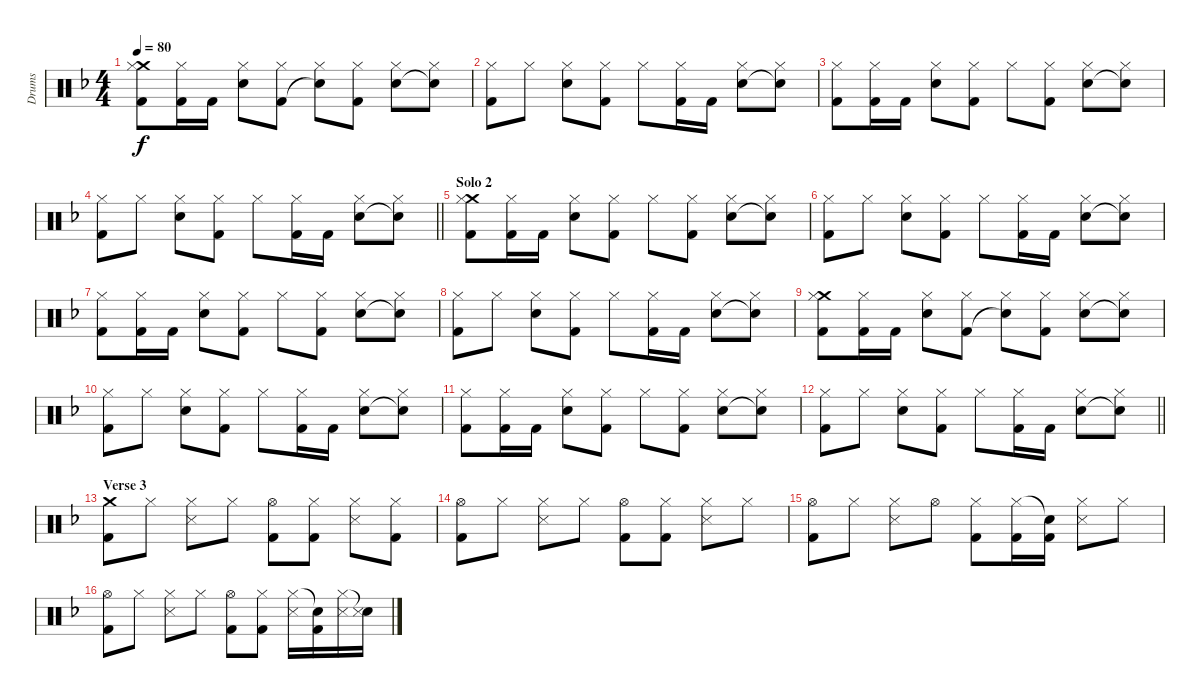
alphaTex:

\track ("Drums" "Drums") {instrument percussion}
\staff {score}
\articulation defaults
\ts (4 4)
\tempo 80
\clef neutral
\ks f
("Crash medium (hit)" "Hi-Hat (closed)" "Kick (hit) 2").8{dy f} ("Hi-Hat (closed)" "Kick (hit) 2").16 "Kick (hit) 2".16 ("Hi-Hat (closed)" "Snare (hit) 2").8 ("Hi-Hat (closed)" "Kick (hit) 2").8 ("Hi-Hat (closed)" "Snare (hit) 2"{t}).8 ("Hi-Hat (closed)" "Kick (hit) 2").8 ("Hi-Hat (closed)" "Snare (hit) 2").8 ("Hi-Hat (closed)" "Snare (hit) 2"{t}).8 |
("Hi-Hat (closed)" "Kick (hit) 2").8 "Hi-Hat (closed)".8 ("Hi-Hat (closed)" "Snare (hit) 2").8 ("Hi-Hat (closed)" "Kick (hit) 2").8 "Hi-Hat (closed)".8 ("Hi-Hat (closed)" "Kick (hit) 2").16 "Kick (hit) 2".16 ("Hi-Hat (closed)" "Snare (hit) 2").8 ("Hi-Hat (closed)" "Snare (hit)"{t}).8 |
("Hi-Hat (closed)" "Kick (hit) 2").8 ("Hi-Hat (closed)" "Kick (hit) 2").16 "Kick (hit) 2".16 ("Hi-Hat (closed)" "Snare (hit) 2").8 ("Hi-Hat (closed)" "Kick (hit) 2").8 "Hi-Hat (closed)".8 ("Hi-Hat (closed)" "Kick (hit) 2").8 ("Hi-Hat (closed)" "Snare (hit) 2").8 ("Hi-Hat (closed)" "Snare (hit) 2"{t}).8 |
\barLineRight lightlight
("Hi-Hat (closed)" "Kick (hit) 2").8 "Hi-Hat (closed)".8 ("Hi-Hat (closed)" "Snare (hit) 2").8 ("Hi-Hat (closed)" "Kick (hit) 2").8 "Hi-Hat (closed)".8 ("Hi-Hat (closed)" "Kick (hit) 2").16 "Kick (hit) 2".16 ("Hi-Hat (closed)" "Snare (hit) 2").8 ("Hi-Hat (closed)" "Snare (hit)"{t}).8 |
\section ("" "Solo 2")
("Crash medium (hit)" "Hi-Hat (closed)" "Kick (hit) 2").8 ("Hi-Hat (closed)" "Kick (hit) 2").16 "Kick (hit) 2".16 ("Hi-Hat (closed)" "Snare (hit) 2").8 ("Hi-Hat (closed)" "Kick (hit) 2").8 "Hi-Hat (closed)".8 ("Hi-Hat (closed)" "Kick (hit) 2").8 ("Hi-Hat (closed)" "Snare (hit) 2").8 ("Hi-Hat (closed)" "Snare (hit) 2"{t}).8 |
("Hi-Hat (closed)" "Kick (hit) 2").8 "Hi-Hat (closed)".8 ("Hi-Hat (closed)" "Snare (hit) 2").8 ("Hi-Hat (closed)" "Kick (hit) 2").8 "Hi-Hat (closed)".8 ("Hi-Hat (closed)" "Kick (hit) 2").16 "Kick (hit) 2".16 ("Hi-Hat (closed)" "Snare (hit) 2").8 ("Hi-Hat (closed)" "Snare (hit)"{t}).8 |
("Hi-Hat (closed)" "Kick (hit) 2").8 ("Hi-Hat (closed)" "Kick (hit) 2").16 "Kick (hit) 2".16 ("Hi-Hat (closed)" "Snare (hit) 2").8 ("Hi-Hat (closed)" "Kick (hit) 2").8 "Hi-Hat (closed)".8 ("Hi-Hat (closed)" "Kick (hit) 2").8 ("Hi-Hat (closed)" "Snare (hit) 2").8 ("Hi-Hat (closed)" "Snare (hit) 2"{t}).8 |
("Hi-Hat (closed)" "Kick (hit) 2").8 "Hi-Hat (closed)".8 ("Hi-Hat (closed)" "Snare (hit) 2").8 ("Hi-Hat (closed)" "Kick (hit) 2").8 "Hi-Hat (closed)".8 ("Hi-Hat (closed)" "Kick (hit) 2").16 "Kick (hit) 2".16 ("Hi-Hat (closed)" "Snare (hit) 2").8 ("Hi-Hat (closed)" "Snare (hit)"{t}).8 |
("Crash medium (hit)" "Hi-Hat (closed)" "Kick (hit) 2").8 ("Hi-Hat (closed)" "Kick (hit) 2").16 "Kick (hit) 2".16 ("Hi-Hat (closed)" "Snare (hit) 2").8 ("Hi-Hat (closed)" "Kick (hit) 2").8 ("Hi-Hat (closed)" "Snare (hit) 2"{t}).8 ("Hi-Hat (closed)" "Kick (hit) 2").8 ("Hi-Hat (closed)" "Snare (hit) 2").8 ("Hi-Hat (closed)" "Snare (hit) 2"{t}).8 |
("Hi-Hat (closed)" "Kick (hit) 2").8 "Hi-Hat (closed)".8 ("Hi-Hat (closed)" "Snare (hit) 2").8 ("Hi-Hat (closed)" "Kick (hit) 2").8 "Hi-Hat (closed)".8 ("Hi-Hat (closed)" "Kick (hit) 2").16 "Kick (hit) 2".16 ("Hi-Hat (closed)" "Snare (hit) 2").8 ("Hi-Hat (closed)" "Snare (hit)"{t}).8 |
("Hi-Hat (closed)" "Kick (hit) 2").8 ("Hi-Hat (closed)" "Kick (hit) 2").16 "Kick (hit) 2".16 ("Hi-Hat (closed)" "Snare (hit) 2").8 ("Hi-Hat (closed)" "Kick (hit) 2").8 "Hi-Hat (closed)".8 ("Hi-Hat (closed)" "Kick (hit) 2").8 ("Hi-Hat (closed)" "Snare (hit) 2").8 ("Hi-Hat (closed)" "Snare (hit) 2"{t}).8 |
\barLineRight lightlight
("Hi-Hat (closed)" "Kick (hit) 2").8 "Hi-Hat (closed)".8 ("Hi-Hat (closed)" "Snare (hit) 2").8 ("Hi-Hat (closed)" "Kick (hit) 2").8 "Hi-Hat (closed)".8 ("Hi-Hat (closed)" "Kick (hit) 2").16 "Kick (hit) 2".16 ("Hi-Hat (closed)" "Snare (hit) 2").8 ("Hi-Hat (closed)" "Snare (hit)"{t}).8 |
\section ("" "Verse 3")
("Crash medium (hit)" "Kick (hit) 2").8 "Hi-Hat (closed)".8 ("Hi-Hat (closed)" "Snare (side stick) 3").8 "Hi-Hat (closed)".8 ("Hi-Hat (open)" "Kick (hit) 2").8 ("Hi-Hat (closed)" "Kick (hit) 2").8 ("Hi-Hat (closed)" "Snare (side stick) 3").8 ("Hi-Hat (closed)" "Kick (hit) 2").8 |
("Hi-Hat (open)" "Kick (hit) 2").8 "Hi-Hat (closed)".8 ("Hi-Hat (closed)" "Snare (side stick) 3").8 "Hi-Hat (closed)".8 ("Hi-Hat (open)" "Kick (hit) 2").8 ("Hi-Hat (closed)" "Kick (hit) 2").8 ("Hi-Hat (closed)" "Snare (side stick) 3").8 "Hi-Hat (closed)".8 |
("Hi-Hat (open)" "Kick (hit) 2").8 "Hi-Hat (closed)".8 ("Hi-Hat (closed)" "Snare (side stick) 3").8 "Hi-Hat (open)".8 ("Hi-Hat (closed)" "Kick (hit) 2").8 ("Hi-Hat (closed)" "Kick (hit) 2").16 ("Snare (hit)"{t} "Kick (hit) 2").16 ("Hi-Hat (closed)" "Snare (side stick) 3").8 "Hi-Hat (closed)".8 |
("Hi-Hat (open)" "Kick (hit) 2").8 "Hi-Hat (closed)".8 ("Hi-Hat (closed)" "Snare (side stick) 3").8 "Hi-Hat (closed)".8 ("Hi-Hat (open)" "Kick (hit) 2").8 ("Hi-Hat (closed)" "Kick (hit) 2").8 ("Hi-Hat (closed)" "Snare (side stick) 3").16 ("Snare (hit)"{t} "Kick (hit) 2").16 ("Hi-Hat (closed)" "Snare (side stick) 3").16 ("Snare (hit)"{t} "Snare (side stick) 3").16
